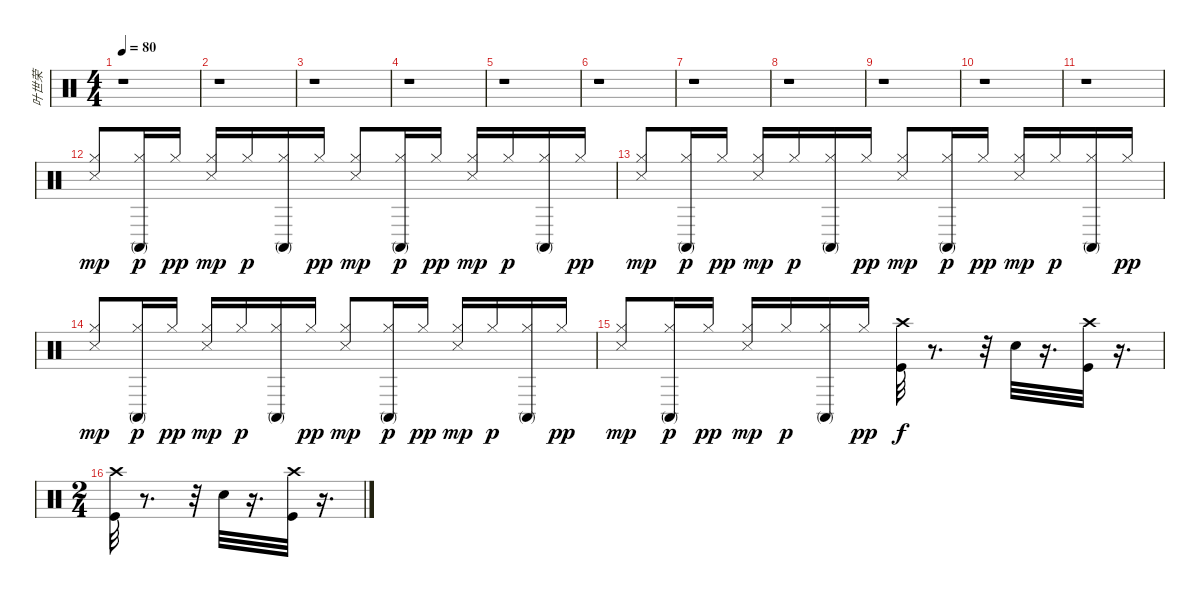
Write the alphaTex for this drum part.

\track ("叶世荣" "叶世荣") {instrument percussion}
\staff {score}
\articulation defaults
\ts (4 4)
\tempo 80
\clef neutral
\ks c
r.1{dy mp} |
r.1 |
r.1 |
r.1 |
r.1 |
r.1 |
r.1 |
r.1 |
r.1 |
r.1 |
r.1 |
("Snare (side stick) 3" "Hi-Hat (closed)").8 ("Hi-Hat (closed)" "Conga high (mute)").16{dy p} "Hi-Hat (closed)".16{dy pp} ("Snare (side stick) 3" "Hi-Hat (closed)").16{dy mp} "Hi-Hat (closed)".16{dy p} ("Hi-Hat (closed)" "Conga high (mute)").16 "Hi-Hat (closed)".16{dy pp} ("Snare (side stick) 3" "Hi-Hat (closed)").8{dy mp} ("Hi-Hat (closed)" "Conga high (mute)").16{dy p} "Hi-Hat (closed)".16{dy pp} ("Snare (side stick) 3" "Hi-Hat (closed)").16{dy mp} "Hi-Hat (closed)".16{dy p} ("Hi-Hat (closed)" "Conga high (mute)").16 "Hi-Hat (closed)".16{dy pp} |
("Snare (side stick) 3" "Hi-Hat (closed)").8{dy mp} ("Hi-Hat (closed)" "Conga high (mute)").16{dy p} "Hi-Hat (closed)".16{dy pp} ("Snare (side stick) 3" "Hi-Hat (closed)").16{dy mp} "Hi-Hat (closed)".16{dy p} ("Hi-Hat (closed)" "Conga high (mute)").16 "Hi-Hat (closed)".16{dy pp} ("Snare (side stick) 3" "Hi-Hat (closed)").8{dy mp} ("Hi-Hat (closed)" "Conga high (mute)").16{dy p} "Hi-Hat (closed)".16{dy pp} ("Snare (side stick) 3" "Hi-Hat (closed)").16{dy mp} "Hi-Hat (closed)".16{dy p} ("Hi-Hat (closed)" "Conga high (mute)").16 "Hi-Hat (closed)".16{dy pp} |
("Snare (side stick) 3" "Hi-Hat (closed)").8{dy mp} ("Hi-Hat (closed)" "Conga high (mute)").16{dy p} "Hi-Hat (closed)".16{dy pp} ("Snare (side stick) 3" "Hi-Hat (closed)").16{dy mp} "Hi-Hat (closed)".16{dy p} ("Hi-Hat (closed)" "Conga high (mute)").16 "Hi-Hat (closed)".16{dy pp} ("Snare (side stick) 3" "Hi-Hat (closed)").8{dy mp} ("Hi-Hat (closed)" "Conga high (mute)").16{dy p} "Hi-Hat (closed)".16{dy pp} ("Snare (side stick) 3" "Hi-Hat (closed)").16{dy mp} "Hi-Hat (closed)".16{dy p} ("Hi-Hat (closed)" "Conga high (mute)").16 "Hi-Hat (closed)".16{dy pp} |
("Snare (side stick) 3" "Hi-Hat (closed)").8{dy mp} ("Hi-Hat (closed)" "Conga high (mute)").16{dy p} "Hi-Hat (closed)".16{dy pp} ("Snare (side stick) 3" "Hi-Hat (closed)").16{dy mp} "Hi-Hat (closed)".16{dy p} ("Hi-Hat (closed)" "Conga high (mute)").16 "Hi-Hat (closed)".16{dy pp} ("Kick (hit)" "Crash high (hit)").32{dy f} r.8{d} r.32 "Snare (hit) 2".32 r.16{d} ("Kick (hit)" "Crash high (hit)").32 r.16{d} |
\ts (2 4)
("Kick (hit)" "Crash high (hit)").32 r.8{d} r.32 "Snare (hit) 2".32 r.16{d} ("Kick (hit)" "Crash high (hit)").32 r.16{d}
